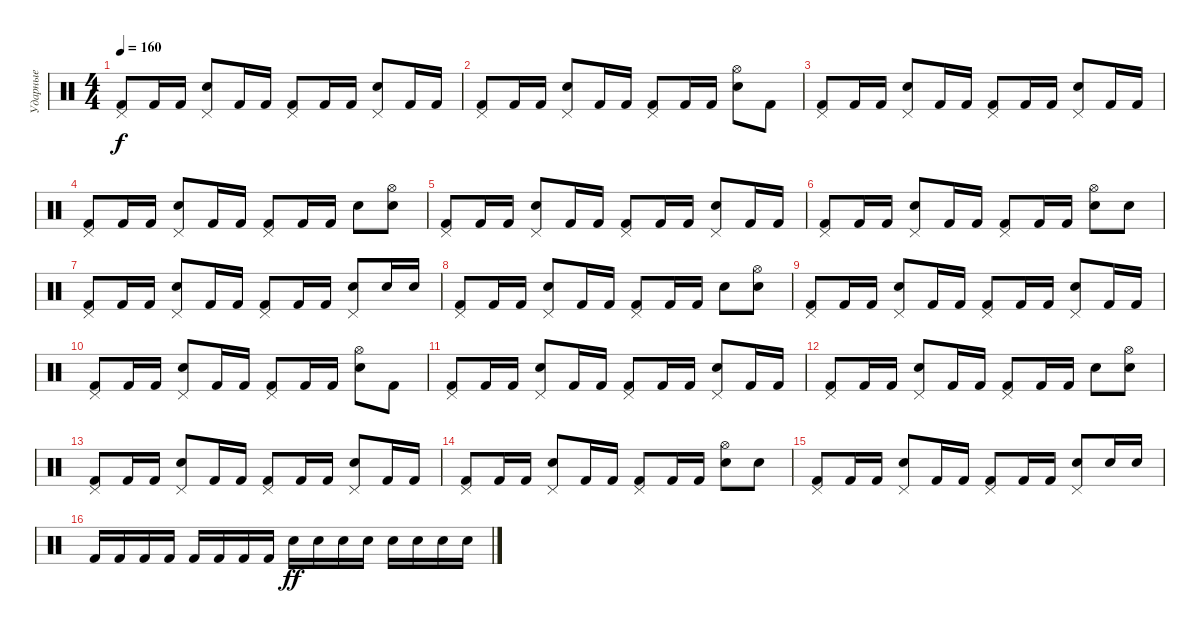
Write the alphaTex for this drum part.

\track ("Ударные" "Ударные") {instrument percussion}
\staff {score}
\articulation defaults
\ts (4 4)
\tempo 160
\clef neutral
\ks c
("Kick (hit) 2" "Pedal Hi-Hat (hit)").8{dy f} "Kick (hit) 2".16 "Kick (hit) 2".16 ("Snare (hit) 2" "Pedal Hi-Hat (hit)").8 "Kick (hit) 2".16 "Kick (hit) 2".16 ("Kick (hit) 2" "Pedal Hi-Hat (hit)").8 "Kick (hit) 2".16 "Kick (hit) 2".16 ("Snare (hit) 2" "Pedal Hi-Hat (hit)").8 "Kick (hit) 2".16 "Kick (hit) 2".16 |
("Kick (hit) 2" "Pedal Hi-Hat (hit)").8 "Kick (hit) 2".16 "Kick (hit) 2".16 ("Snare (hit) 2" "Pedal Hi-Hat (hit)").8 "Kick (hit) 2".16 "Kick (hit) 2".16 ("Kick (hit) 2" "Pedal Hi-Hat (hit)").8 "Kick (hit) 2".16 "Kick (hit) 2".16 ("Snare (hit) 2" "Hi-Hat (open)").8 "Kick (hit) 2".8 |
("Kick (hit) 2" "Pedal Hi-Hat (hit)").8 "Kick (hit) 2".16 "Kick (hit) 2".16 ("Snare (hit) 2" "Pedal Hi-Hat (hit)").8 "Kick (hit) 2".16 "Kick (hit) 2".16 ("Kick (hit) 2" "Pedal Hi-Hat (hit)").8 "Kick (hit) 2".16 "Kick (hit) 2".16 ("Snare (hit) 2" "Pedal Hi-Hat (hit)").8 "Kick (hit) 2".16 "Kick (hit) 2".16 |
("Kick (hit) 2" "Pedal Hi-Hat (hit)").8 "Kick (hit) 2".16 "Kick (hit) 2".16 ("Snare (hit) 2" "Pedal Hi-Hat (hit)").8 "Kick (hit) 2".16 "Kick (hit) 2".16 ("Kick (hit) 2" "Pedal Hi-Hat (hit)").8 "Kick (hit) 2".16 "Kick (hit) 2".16 "Snare (hit) 2".8 ("Snare (hit) 2" "Hi-Hat (open)").8 |
("Kick (hit) 2" "Pedal Hi-Hat (hit)").8 "Kick (hit) 2".16 "Kick (hit) 2".16 ("Snare (hit) 2" "Pedal Hi-Hat (hit)").8 "Kick (hit) 2".16 "Kick (hit) 2".16 ("Kick (hit) 2" "Pedal Hi-Hat (hit)").8 "Kick (hit) 2".16 "Kick (hit) 2".16 ("Snare (hit) 2" "Pedal Hi-Hat (hit)").8 "Kick (hit) 2".16 "Kick (hit) 2".16 |
("Kick (hit) 2" "Pedal Hi-Hat (hit)").8 "Kick (hit) 2".16 "Kick (hit) 2".16 ("Snare (hit) 2" "Pedal Hi-Hat (hit)").8 "Kick (hit) 2".16 "Kick (hit) 2".16 ("Kick (hit) 2" "Pedal Hi-Hat (hit)").8 "Kick (hit) 2".16 "Kick (hit) 2".16 ("Snare (hit) 2" "Hi-Hat (open)").8 "Snare (hit) 2".8 |
("Kick (hit) 2" "Pedal Hi-Hat (hit)").8 "Kick (hit) 2".16 "Kick (hit) 2".16 ("Snare (hit) 2" "Pedal Hi-Hat (hit)").8 "Kick (hit) 2".16 "Kick (hit) 2".16 ("Kick (hit) 2" "Pedal Hi-Hat (hit)").8 "Kick (hit) 2".16 "Kick (hit) 2".16 ("Snare (hit) 2" "Pedal Hi-Hat (hit)").8 "Snare (hit) 2".16 "Snare (hit) 2".16 |
("Kick (hit) 2" "Pedal Hi-Hat (hit)").8 "Kick (hit) 2".16 "Kick (hit) 2".16 ("Snare (hit) 2" "Pedal Hi-Hat (hit)").8 "Kick (hit) 2".16 "Kick (hit) 2".16 ("Kick (hit) 2" "Pedal Hi-Hat (hit)").8 "Kick (hit) 2".16 "Kick (hit) 2".16 "Snare (hit) 2".8 ("Snare (hit) 2" "Hi-Hat (open)").8 |
("Kick (hit) 2" "Pedal Hi-Hat (hit)").8 "Kick (hit) 2".16 "Kick (hit) 2".16 ("Snare (hit) 2" "Pedal Hi-Hat (hit)").8 "Kick (hit) 2".16 "Kick (hit) 2".16 ("Kick (hit) 2" "Pedal Hi-Hat (hit)").8 "Kick (hit) 2".16 "Kick (hit) 2".16 ("Snare (hit) 2" "Pedal Hi-Hat (hit)").8 "Kick (hit) 2".16 "Kick (hit) 2".16 |
("Kick (hit) 2" "Pedal Hi-Hat (hit)").8 "Kick (hit) 2".16 "Kick (hit) 2".16 ("Snare (hit) 2" "Pedal Hi-Hat (hit)").8 "Kick (hit) 2".16 "Kick (hit) 2".16 ("Kick (hit) 2" "Pedal Hi-Hat (hit)").8 "Kick (hit) 2".16 "Kick (hit) 2".16 ("Snare (hit) 2" "Hi-Hat (open)").8 "Kick (hit) 2".8 |
("Kick (hit) 2" "Pedal Hi-Hat (hit)").8 "Kick (hit) 2".16 "Kick (hit) 2".16 ("Snare (hit) 2" "Pedal Hi-Hat (hit)").8 "Kick (hit) 2".16 "Kick (hit) 2".16 ("Kick (hit) 2" "Pedal Hi-Hat (hit)").8 "Kick (hit) 2".16 "Kick (hit) 2".16 ("Snare (hit) 2" "Pedal Hi-Hat (hit)").8 "Kick (hit) 2".16 "Kick (hit) 2".16 |
("Kick (hit) 2" "Pedal Hi-Hat (hit)").8 "Kick (hit) 2".16 "Kick (hit) 2".16 ("Snare (hit) 2" "Pedal Hi-Hat (hit)").8 "Kick (hit) 2".16 "Kick (hit) 2".16 ("Kick (hit) 2" "Pedal Hi-Hat (hit)").8 "Kick (hit) 2".16 "Kick (hit) 2".16 "Snare (hit) 2".8 ("Snare (hit) 2" "Hi-Hat (open)").8 |
("Kick (hit) 2" "Pedal Hi-Hat (hit)").8 "Kick (hit) 2".16 "Kick (hit) 2".16 ("Snare (hit) 2" "Pedal Hi-Hat (hit)").8 "Kick (hit) 2".16 "Kick (hit) 2".16 ("Kick (hit) 2" "Pedal Hi-Hat (hit)").8 "Kick (hit) 2".16 "Kick (hit) 2".16 ("Snare (hit) 2" "Pedal Hi-Hat (hit)").8 "Kick (hit) 2".16 "Kick (hit) 2".16 |
("Kick (hit) 2" "Pedal Hi-Hat (hit)").8 "Kick (hit) 2".16 "Kick (hit) 2".16 ("Snare (hit) 2" "Pedal Hi-Hat (hit)").8 "Kick (hit) 2".16 "Kick (hit) 2".16 ("Kick (hit) 2" "Pedal Hi-Hat (hit)").8 "Kick (hit) 2".16 "Kick (hit) 2".16 ("Snare (hit) 2" "Hi-Hat (open)").8 "Snare (hit) 2".8 |
("Kick (hit) 2" "Pedal Hi-Hat (hit)").8 "Kick (hit) 2".16 "Kick (hit) 2".16 ("Snare (hit) 2" "Pedal Hi-Hat (hit)").8 "Kick (hit) 2".16 "Kick (hit) 2".16 ("Kick (hit) 2" "Pedal Hi-Hat (hit)").8 "Kick (hit) 2".16 "Kick (hit) 2".16 ("Snare (hit) 2" "Pedal Hi-Hat (hit)").8 "Snare (hit) 2".16 "Snare (hit) 2".16 |
"Kick (hit) 2".16 "Kick (hit) 2".16 "Kick (hit) 2".16 "Kick (hit) 2".16 "Kick (hit) 2".16 "Kick (hit) 2".16 "Kick (hit) 2".16 "Kick (hit) 2".16 "Snare (hit) 2".16{dy ff} "Snare (hit) 2".16 "Snare (hit) 2".16 "Snare (hit) 2".16 "Snare (hit) 2".16 "Snare (hit) 2".16 "Snare (hit) 2".16 "Snare (hit) 2".16
